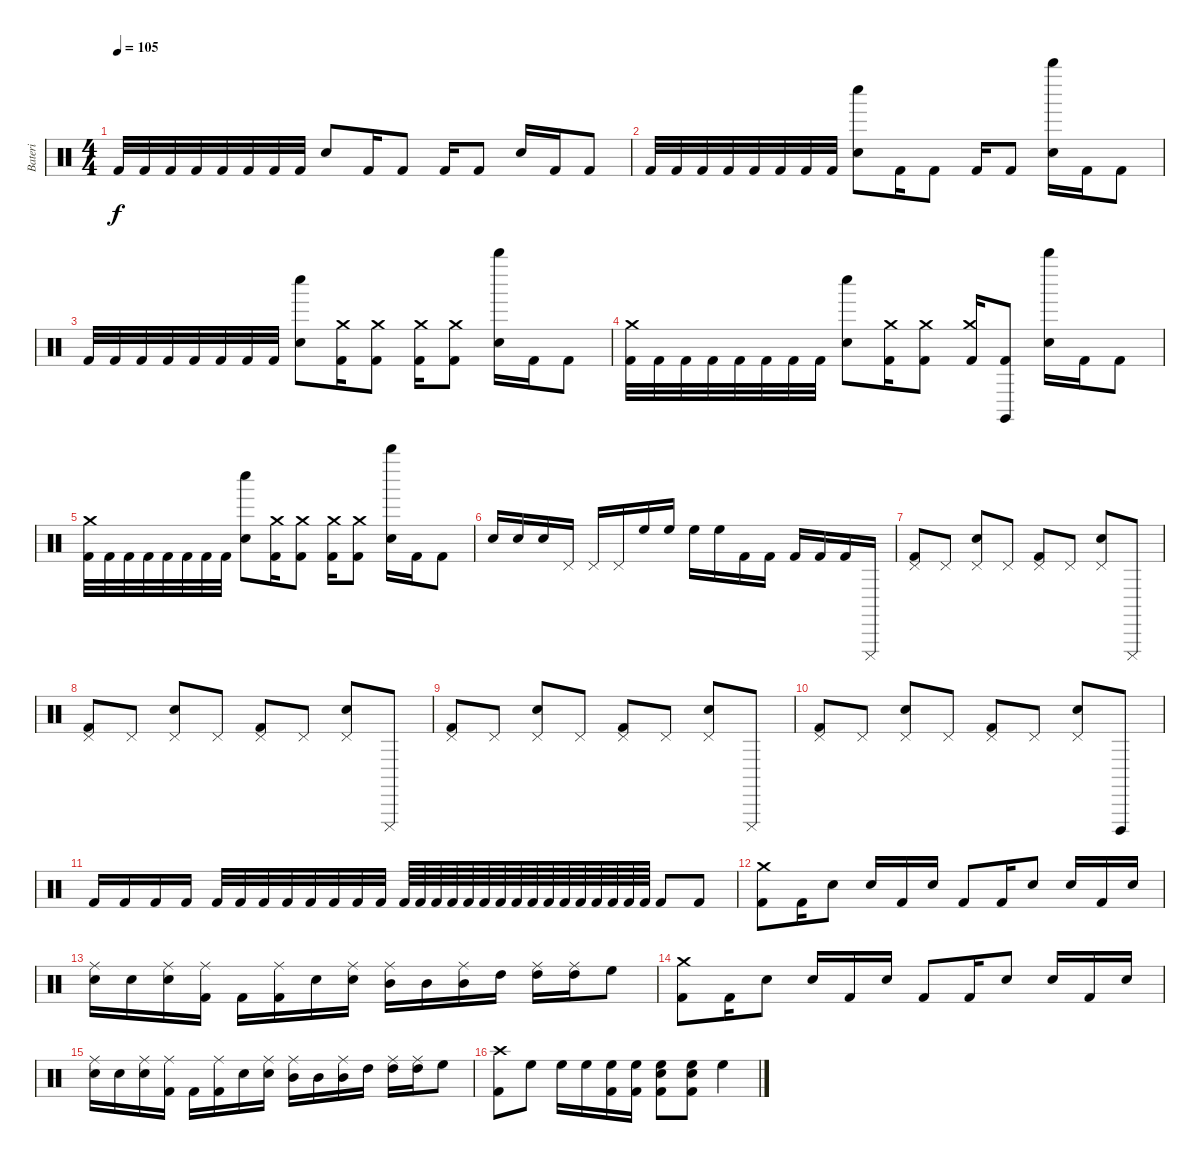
\track ("Bateri" "Bateri") {instrument percussion}
\staff {score}
\articulation defaults
\ts (4 4)
\tempo 105
\clef neutral
\ks c "Kick (hit) 2".32{dy f} "Kick (hit) 2".32 "Kick (hit) 2".32 "Kick (hit) 2".32 "Kick (hit) 2".32 "Kick (hit) 2".32 "Kick (hit) 2".32 "Kick (hit) 2".32 "Electric Snare (hit)".8 "Kick (hit) 2".16 "Kick (hit) 2".8 "Kick (hit) 2".16 "Kick (hit) 2".8 "Electric Snare (hit)".16 "Kick (hit) 2".16 "Kick (hit) 2".8
|
"Kick (hit) 2".32 "Kick (hit) 2".32 "Kick (hit) 2".32 "Kick (hit) 2".32 "Kick (hit) 2".32 "Kick (hit) 2".32 "Kick (hit) 2".32 "Kick (hit) 2".32 ("Whistle low (hit)" "Electric Snare (hit)").8 "Kick (hit) 2".16 "Kick (hit) 2".8 "Kick (hit) 2".16 "Kick (hit) 2".8 ("Whistle high (hit)" "Electric Snare (hit)").16 "Kick (hit) 2".16 "Kick (hit) 2".8 |
"Kick (hit) 2".32 "Kick (hit) 2".32 "Kick (hit) 2".32 "Kick (hit) 2".32 "Kick (hit) 2".32 "Kick (hit) 2".32 "Kick (hit) 2".32 "Kick (hit) 2".32 ("Whistle low (hit)" "Electric Snare (hit)").8 ("Crash medium (hit)" "Kick (hit) 2").16 ("Crash medium (hit)" "Kick (hit) 2").8 ("Crash medium (hit)" "Kick (hit) 2").16 ("Crash medium (hit)" "Kick (hit) 2").8 ("Whistle high (hit)" "Electric Snare (hit)").16 "Kick (hit) 2".16 "Kick (hit) 2".8 |
("Crash medium (hit)" "Kick (hit) 2").32 "Kick (hit) 2".32 "Kick (hit) 2".32 "Kick (hit) 2".32 "Kick (hit) 2".32 "Kick (hit) 2".32 "Kick (hit) 2".32 "Kick (hit) 2".32 ("Whistle low (hit)" "Electric Snare (hit)").8 ("Crash medium (hit)" "Kick (hit) 2").16 ("Crash medium (hit)" "Kick (hit) 2").8 ("Crash medium (hit)" "Kick (hit) 2").16 ("Claves (hit)" "Kick (hit) 2").8 ("Whistle high (hit)" "Electric Snare (hit)").16 "Kick (hit) 2".16 "Kick (hit) 2".8 |
("Crash medium (hit)" "Kick (hit) 2").32 "Kick (hit) 2".32 "Kick (hit) 2".32 "Kick (hit) 2".32 "Kick (hit) 2".32 "Kick (hit) 2".32 "Kick (hit) 2".32 "Kick (hit) 2".32 ("Whistle low (hit)" "Electric Snare (hit)").8 ("Crash medium (hit)" "Kick (hit) 2").16 ("Crash medium (hit)" "Kick (hit) 2").8 ("Crash medium (hit)" "Kick (hit) 2").16 ("Crash medium (hit)" "Kick (hit) 2").8 ("Whistle high (hit)" "Electric Snare (hit)").16 "Kick (hit) 2".16 "Kick (hit) 2".8 |
"Electric Snare (hit)".16 "Electric Snare (hit)".16 "Electric Snare (hit)".16 "Pedal Hi-Hat (hit)".16 "Pedal Hi-Hat (hit)".16 "Pedal Hi-Hat (hit)".16 "High Floor Tom (hit)".16 "High Floor Tom (hit)".16 "High Floor Tom (hit)".16 "High Floor Tom (hit)".16 "Kick (hit) 2".16 "Kick (hit) 2".16 "Kick (hit) 2".16 "Kick (hit) 2".16 "Kick (hit) 2".16 "Cuica (mute)".16 |
("Pedal Hi-Hat (hit)" "Kick (hit) 2").8 "Pedal Hi-Hat (hit)".8 ("Electric Snare (hit)" "Pedal Hi-Hat (hit)").8 "Pedal Hi-Hat (hit)".8 ("Pedal Hi-Hat (hit)" "Kick (hit) 2").8 "Pedal Hi-Hat (hit)".8 ("Electric Snare (hit)" "Pedal Hi-Hat (hit)").8 "Cuica (mute)".8 |
("Pedal Hi-Hat (hit)" "Kick (hit) 2").8 "Pedal Hi-Hat (hit)".8 ("Electric Snare (hit)" "Pedal Hi-Hat (hit)").8 "Pedal Hi-Hat (hit)".8 ("Pedal Hi-Hat (hit)" "Kick (hit) 2").8 "Pedal Hi-Hat (hit)".8 ("Electric Snare (hit)" "Pedal Hi-Hat (hit)").8 "Cuica (mute)".8 |
("Pedal Hi-Hat (hit)" "Kick (hit) 2").8 "Pedal Hi-Hat (hit)".8 ("Electric Snare (hit)" "Pedal Hi-Hat (hit)").8 "Pedal Hi-Hat (hit)".8 ("Pedal Hi-Hat (hit)" "Kick (hit) 2").8 "Pedal Hi-Hat (hit)".8 ("Electric Snare (hit)" "Pedal Hi-Hat (hit)").8 "Cuica (mute)".8 |
("Pedal Hi-Hat (hit)" "Kick (hit) 2").8 "Pedal Hi-Hat (hit)".8 ("Electric Snare (hit)" "Pedal Hi-Hat (hit)").8 "Pedal Hi-Hat (hit)".8 ("Pedal Hi-Hat (hit)" "Kick (hit) 2").8 "Pedal Hi-Hat (hit)".8 ("Electric Snare (hit)" "Pedal Hi-Hat (hit)").8 "Cuica (open)".8 |
"Kick (hit) 2".16 "Kick (hit) 2".16 "Kick (hit) 2".16 "Kick (hit) 2".16 "Kick (hit) 2".32 "Kick (hit) 2".32 "Kick (hit) 2".32 "Kick (hit) 2".32 "Kick (hit) 2".32 "Kick (hit) 2".32 "Kick (hit) 2".32 "Kick (hit) 2".32 "Kick (hit) 2".64 "Kick (hit) 2".64 "Kick (hit) 2".64 "Kick (hit) 2".64 "Kick (hit) 2".64 "Kick (hit) 2".64 "Kick (hit) 2".64 "Kick (hit) 2".64 "Kick (hit) 2".64 "Kick (hit) 2".64 "Kick (hit) 2".64 "Kick (hit) 2".64 "Kick (hit) 2".64 "Kick (hit) 2".64 "Kick (hit) 2".64 "Kick (hit) 2".64 "Kick (hit) 2".8 "Kick (hit) 2".8 |
("Crash medium (hit)" "Kick (hit) 2").8 "Kick (hit) 2".16 "Electric Snare (hit)".8 "Electric Snare (hit)".16 "Kick (hit) 2".16 "Electric Snare (hit)".16 "Kick (hit) 2".8 "Kick (hit) 2".16 "Electric Snare (hit)".8 "Electric Snare (hit)".16 "Kick (hit) 2".16 "Electric Snare (hit)".16 |
("Ride (middle)" "Electric Snare (hit)").16 "Electric Snare (hit)".16 ("Ride (middle)" "Electric Snare (hit)").16 ("Ride (middle)" "Kick (hit) 2").16 "Kick (hit) 2".16 ("Ride (middle)" "Kick (hit) 2").16 "Electric Snare (hit)".16 ("Ride (middle)" "Electric Snare (hit)").16 ("Ride (middle)" "Mid Tom (hit)").16 "Mid Tom (hit)".16 ("Ride (middle)" "Mid Tom (hit)").16 "High Tom (hit)".16 ("Ride (middle)" "High Tom (hit)").16 ("Ride (middle)" "High Tom (hit)").16 "High Floor Tom (hit)".8 |
("Crash medium (hit)" "Kick (hit) 2").8 "Kick (hit) 2".16 "Electric Snare (hit)".8 "Electric Snare (hit)".16 "Kick (hit) 2".16 "Electric Snare (hit)".16 "Kick (hit) 2".8 "Kick (hit) 2".16 "Electric Snare (hit)".8 "Electric Snare (hit)".16 "Kick (hit) 2".16 "Electric Snare (hit)".16 |
("Ride (middle)" "Electric Snare (hit)").16 "Electric Snare (hit)".16 ("Ride (middle)" "Electric Snare (hit)").16 ("Ride (middle)" "Kick (hit) 2").16 "Kick (hit) 2".16 ("Ride (middle)" "Kick (hit) 2").16 "Electric Snare (hit)".16 ("Ride (middle)" "Electric Snare (hit)").16 ("Ride (middle)" "Mid Tom (hit)").16 "Mid Tom (hit)".16 ("Ride (middle)" "Mid Tom (hit)").16 "High Tom (hit)".16 ("Ride (middle)" "High Tom (hit)").16 ("Ride (middle)" "High Tom (hit)").16 "High Floor Tom (hit)".8 |
("Crash high (hit)" "Kick (hit) 2").8 "High Floor Tom (hit)".8 "High Floor Tom (hit)".16 "High Floor Tom (hit)".16 ("High Floor Tom (hit)" "Kick (hit) 2").16 ("High Floor Tom (hit)" "Kick (hit) 2").16 ("Electric Snare (hit)" "High Floor Tom (hit)" "Kick (hit) 2").8 ("Electric Snare (hit)" "High Floor Tom (hit)" "Kick (hit) 2").8 "High Floor Tom (hit)".4
